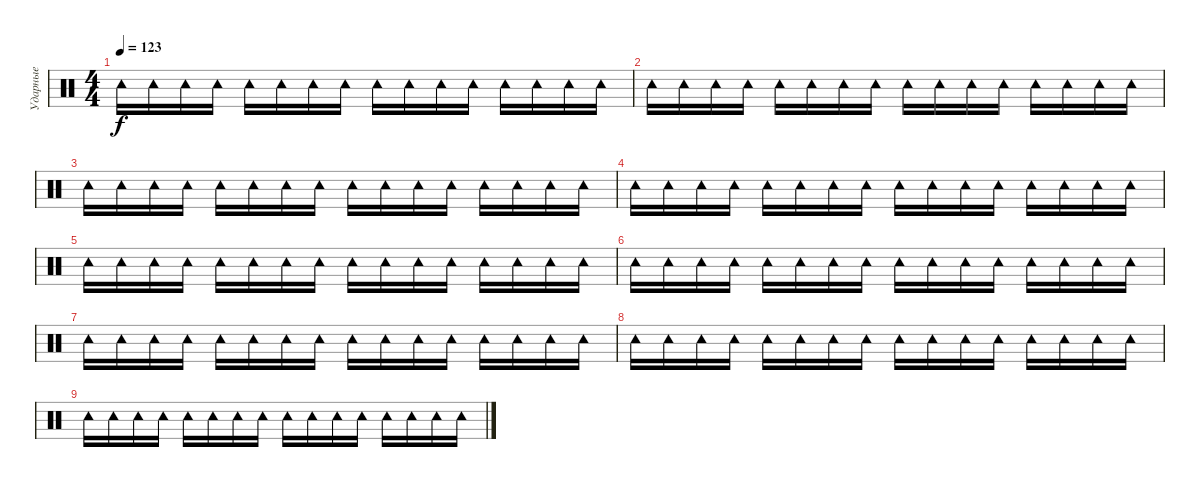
\track ("Ударные" "Ударные") {instrument percussion}
\staff {score}
\articulation defaults
\ts (4 4)
\tempo 123
\clef neutral
\ks c "Tambourine (hit)".16{dy f} "Tambourine (hit)".16 "Tambourine (hit)".16 "Tambourine (hit)".16 "Tambourine (hit)".16 "Tambourine (hit)".16 "Tambourine (hit)".16 "Tambourine (hit)".16 "Tambourine (hit)".16 "Tambourine (hit)".16 "Tambourine (hit)".16 "Tambourine (hit)".16 "Tambourine (hit)".16 "Tambourine (hit)".16 "Tambourine (hit)".16 "Tambourine (hit)".16
|
"Tambourine (hit)".16 "Tambourine (hit)".16 "Tambourine (hit)".16 "Tambourine (hit)".16 "Tambourine (hit)".16 "Tambourine (hit)".16 "Tambourine (hit)".16 "Tambourine (hit)".16 "Tambourine (hit)".16 "Tambourine (hit)".16 "Tambourine (hit)".16 "Tambourine (hit)".16 "Tambourine (hit)".16 "Tambourine (hit)".16 "Tambourine (hit)".16 "Tambourine (hit)".16 |
"Tambourine (hit)".16 "Tambourine (hit)".16 "Tambourine (hit)".16 "Tambourine (hit)".16 "Tambourine (hit)".16 "Tambourine (hit)".16 "Tambourine (hit)".16 "Tambourine (hit)".16 "Tambourine (hit)".16 "Tambourine (hit)".16 "Tambourine (hit)".16 "Tambourine (hit)".16 "Tambourine (hit)".16 "Tambourine (hit)".16 "Tambourine (hit)".16 "Tambourine (hit)".16 |
"Tambourine (hit)".16 "Tambourine (hit)".16 "Tambourine (hit)".16 "Tambourine (hit)".16 "Tambourine (hit)".16 "Tambourine (hit)".16 "Tambourine (hit)".16 "Tambourine (hit)".16 "Tambourine (hit)".16 "Tambourine (hit)".16 "Tambourine (hit)".16 "Tambourine (hit)".16 "Tambourine (hit)".16 "Tambourine (hit)".16 "Tambourine (hit)".16 "Tambourine (hit)".16 |
"Tambourine (hit)".16 "Tambourine (hit)".16 "Tambourine (hit)".16 "Tambourine (hit)".16 "Tambourine (hit)".16 "Tambourine (hit)".16 "Tambourine (hit)".16 "Tambourine (hit)".16 "Tambourine (hit)".16 "Tambourine (hit)".16 "Tambourine (hit)".16 "Tambourine (hit)".16 "Tambourine (hit)".16 "Tambourine (hit)".16 "Tambourine (hit)".16 "Tambourine (hit)".16 |
"Tambourine (hit)".16 "Tambourine (hit)".16 "Tambourine (hit)".16 "Tambourine (hit)".16 "Tambourine (hit)".16 "Tambourine (hit)".16 "Tambourine (hit)".16 "Tambourine (hit)".16 "Tambourine (hit)".16 "Tambourine (hit)".16 "Tambourine (hit)".16 "Tambourine (hit)".16 "Tambourine (hit)".16 "Tambourine (hit)".16 "Tambourine (hit)".16 "Tambourine (hit)".16 |
"Tambourine (hit)".16 "Tambourine (hit)".16 "Tambourine (hit)".16 "Tambourine (hit)".16 "Tambourine (hit)".16 "Tambourine (hit)".16 "Tambourine (hit)".16 "Tambourine (hit)".16 "Tambourine (hit)".16 "Tambourine (hit)".16 "Tambourine (hit)".16 "Tambourine (hit)".16 "Tambourine (hit)".16 "Tambourine (hit)".16 "Tambourine (hit)".16 "Tambourine (hit)".16 |
"Tambourine (hit)".16 "Tambourine (hit)".16 "Tambourine (hit)".16 "Tambourine (hit)".16 "Tambourine (hit)".16 "Tambourine (hit)".16 "Tambourine (hit)".16 "Tambourine (hit)".16 "Tambourine (hit)".16 "Tambourine (hit)".16 "Tambourine (hit)".16 "Tambourine (hit)".16 "Tambourine (hit)".16 "Tambourine (hit)".16 "Tambourine (hit)".16 "Tambourine (hit)".16 |
"Tambourine (hit)".16 "Tambourine (hit)".16 "Tambourine (hit)".16 "Tambourine (hit)".16 "Tambourine (hit)".16 "Tambourine (hit)".16 "Tambourine (hit)".16 "Tambourine (hit)".16 "Tambourine (hit)".16 "Tambourine (hit)".16 "Tambourine (hit)".16 "Tambourine (hit)".16 "Tambourine (hit)".16 "Tambourine (hit)".16 "Tambourine (hit)".16 "Tambourine (hit)".16
